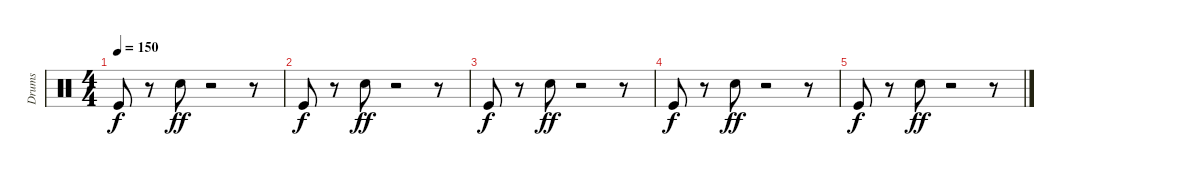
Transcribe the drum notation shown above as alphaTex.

\track ("Drums" "Drums") {instrument percussion}
\staff {score}
\articulation defaults
\ts (4 4)
\tempo 150
\clef neutral
\ks c "Kick (hit)".8{dy f}
r.8 "Snare (hit) 2".8{dy ff} r.2 r.8 |
"Kick (hit)".8{dy f} r.8 "Snare (hit) 2".8{dy ff} r.2 r.8 |
"Kick (hit)".8{dy f} r.8 "Snare (hit) 2".8{dy ff} r.2 r.8 |
"Kick (hit)".8{dy f} r.8 "Snare (hit) 2".8{dy ff} r.2 r.8 |
"Kick (hit)".8{dy f} r.8 "Snare (hit) 2".8{dy ff} r.2 r.8
